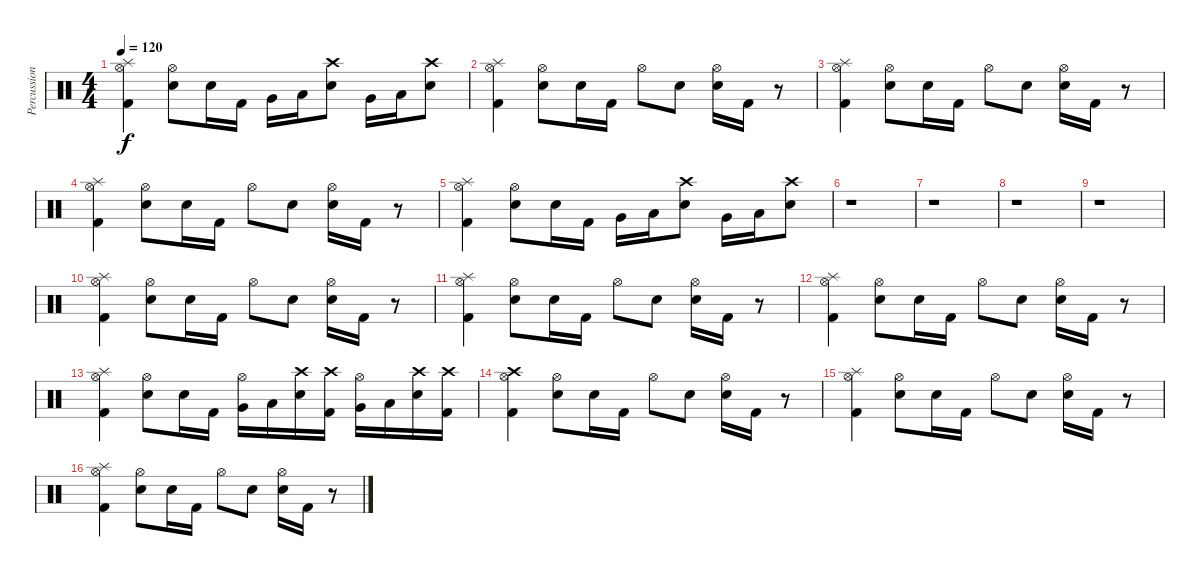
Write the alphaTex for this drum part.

\track ("Percussion" "Percussion") {instrument percussion}
\staff {score}
\articulation defaults
\ts (4 4)
\tempo 120
\clef neutral
\ks c
("Splash (hit)" "Hi-Hat (open)" "Kick (hit) 2").4{dy f} ("Hi-Hat (open)" "Snare (hit) 2").8 "Snare (hit) 2".16 "Kick (hit) 2".16 "Very Low Tom (hit)".16 "Low Floor Tom (hit)".16 ("Crash high (hit)" "Snare (hit) 2").8 "Very Low Tom (hit)".16 "Low Floor Tom (hit)".16 ("Crash high (hit)" "Snare (hit) 2").8 |
("Splash (hit)" "Hi-Hat (open)" "Kick (hit) 2").4 ("Hi-Hat (open)" "Snare (hit) 2").8 "Snare (hit) 2".16 "Kick (hit) 2".16 "Hi-Hat (open)".8 "Snare (hit) 2".8 ("Hi-Hat (open)" "Snare (hit) 2").16 "Kick (hit) 2".16 r.8 |
("Splash (hit)" "Hi-Hat (open)" "Kick (hit) 2").4 ("Hi-Hat (open)" "Snare (hit) 2").8 "Snare (hit) 2".16 "Kick (hit) 2".16 "Hi-Hat (open)".8 "Snare (hit) 2".8 ("Hi-Hat (open)" "Snare (hit) 2").16 "Kick (hit) 2".16 r.8 |
("Splash (hit)" "Hi-Hat (open)" "Kick (hit) 2").4 ("Hi-Hat (open)" "Snare (hit) 2").8 "Snare (hit) 2".16 "Kick (hit) 2".16 "Hi-Hat (open)".8 "Snare (hit) 2".8 ("Hi-Hat (open)" "Snare (hit) 2").16 "Kick (hit) 2".16 r.8 |
("Splash (hit)" "Hi-Hat (open)" "Kick (hit) 2").4 ("Hi-Hat (open)" "Snare (hit) 2").8 "Snare (hit) 2".16 "Kick (hit) 2".16 "Very Low Tom (hit)".16 "Low Floor Tom (hit)".16 ("Crash high (hit)" "Snare (hit) 2").8 "Very Low Tom (hit)".16 "Low Floor Tom (hit)".16 ("Crash high (hit)" "Snare (hit) 2").8 |
r.1 |
r.1 |
r.1 |
r.1 |
("Splash (hit)" "Hi-Hat (open)" "Kick (hit) 2").4 ("Hi-Hat (open)" "Snare (hit) 2").8 "Snare (hit) 2".16 "Kick (hit) 2".16 "Hi-Hat (open)".8 "Snare (hit) 2".8 ("Hi-Hat (open)" "Snare (hit) 2").16 "Kick (hit) 2".16 r.8 |
("Splash (hit)" "Hi-Hat (open)" "Kick (hit) 2").4 ("Hi-Hat (open)" "Snare (hit) 2").8 "Snare (hit) 2".16 "Kick (hit) 2".16 "Hi-Hat (open)".8 "Snare (hit) 2".8 ("Hi-Hat (open)" "Snare (hit) 2").16 "Kick (hit) 2".16 r.8 |
("Splash (hit)" "Hi-Hat (open)" "Kick (hit) 2").4 ("Hi-Hat (open)" "Snare (hit) 2").8 "Snare (hit) 2".16 "Kick (hit) 2".16 "Hi-Hat (open)".8 "Snare (hit) 2".8 ("Hi-Hat (open)" "Snare (hit) 2").16 "Kick (hit) 2".16 r.8 |
("Splash (hit)" "Hi-Hat (open)" "Kick (hit) 2").4 ("Hi-Hat (open)" "Snare (hit) 2").8 "Snare (hit) 2".16 "Kick (hit) 2".16 ("Hi-Hat (open)" "Very Low Tom (hit)").16 "Low Floor Tom (hit)".16 ("Crash high (hit)" "Snare (hit) 2").16 ("Crash high (hit)" "Kick (hit) 2").16 ("Hi-Hat (open)" "Very Low Tom (hit)").16 "Low Floor Tom (hit)".16 ("Crash high (hit)" "Snare (hit) 2").16 ("Crash high (hit)" "Kick (hit) 2").16 |
("Crash high (hit)" "Hi-Hat (open)" "Kick (hit) 2").4 ("Hi-Hat (open)" "Snare (hit) 2").8 "Snare (hit) 2".16 "Kick (hit) 2".16 "Hi-Hat (open)".8 "Snare (hit) 2".8 ("Hi-Hat (open)" "Snare (hit) 2").16 "Kick (hit) 2".16 r.8 |
("Splash (hit)" "Hi-Hat (open)" "Kick (hit) 2").4 ("Hi-Hat (open)" "Snare (hit) 2").8 "Snare (hit) 2".16 "Kick (hit) 2".16 "Hi-Hat (open)".8 "Snare (hit) 2".8 ("Hi-Hat (open)" "Snare (hit) 2").16 "Kick (hit) 2".16 r.8 |
("Splash (hit)" "Hi-Hat (open)" "Kick (hit) 2").4 ("Hi-Hat (open)" "Snare (hit) 2").8 "Snare (hit) 2".16 "Kick (hit) 2".16 "Hi-Hat (open)".8 "Snare (hit) 2".8 ("Hi-Hat (open)" "Snare (hit) 2").16 "Kick (hit) 2".16 r.8
